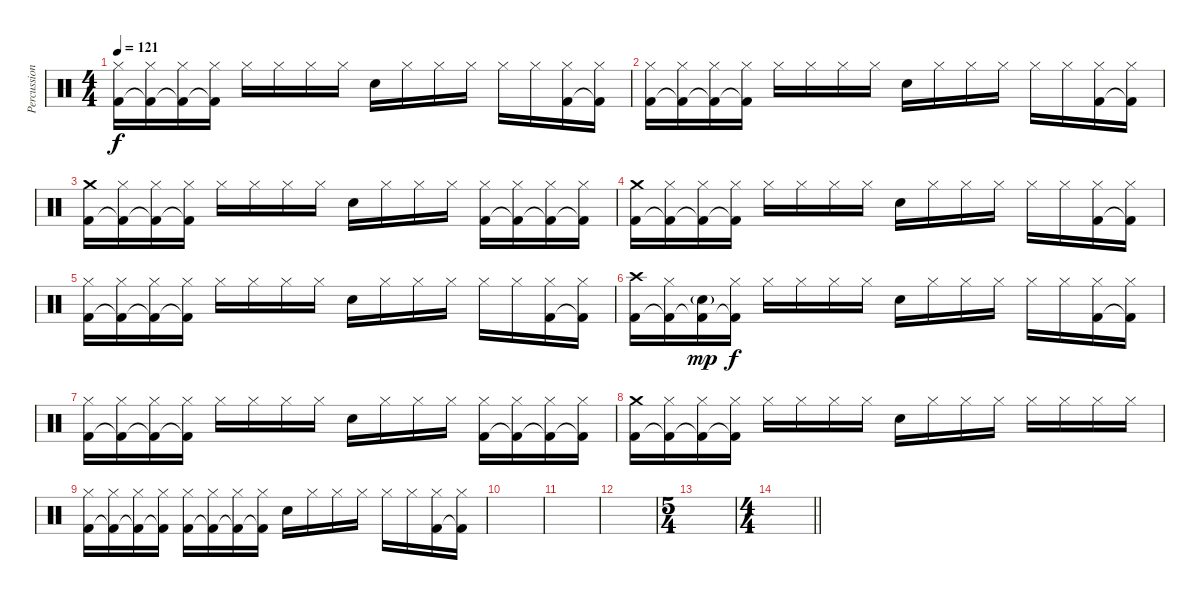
\track ("Percussioni" "Percussion") {instrument percussion}
\staff {score}
\articulation defaults
\ts (4 4)
\tempo 121
\clef neutral
\ks c
("Hi-Hat (closed)" "Kick (hit) 2").16{dy f} ("Hi-Hat (closed)" "Kick (hit) 2"{t}).16 ("Hi-Hat (closed)" "Kick (hit) 2"{t}).16 ("Hi-Hat (closed)" "Kick (hit) 2"{t}).16 "Hi-Hat (closed)".16 "Hi-Hat (closed)".16 "Hi-Hat (closed)".16 "Hi-Hat (closed)".16 "Snare (hit) 2".16 "Hi-Hat (closed)".16 "Hi-Hat (closed)".16 "Hi-Hat (closed)".16 "Hi-Hat (closed)".16 "Hi-Hat (closed)".16 ("Hi-Hat (closed)" "Kick (hit) 2").16 ("Hi-Hat (closed)" "Kick (hit) 2"{t}).16 |
("Hi-Hat (closed)" "Kick (hit) 2").16 ("Hi-Hat (closed)" "Kick (hit) 2"{t}).16 ("Hi-Hat (closed)" "Kick (hit) 2"{t}).16 ("Hi-Hat (closed)" "Kick (hit) 2"{t}).16 "Hi-Hat (closed)".16 "Hi-Hat (closed)".16 "Hi-Hat (closed)".16 "Hi-Hat (closed)".16 "Snare (hit) 2".16 "Hi-Hat (closed)".16 "Hi-Hat (closed)".16 "Hi-Hat (closed)".16 "Hi-Hat (closed)".16 "Hi-Hat (closed)".16 ("Hi-Hat (closed)" "Kick (hit) 2").16 ("Hi-Hat (closed)" "Kick (hit) 2"{t}).16 |
("Crash medium (hit)" "Kick (hit) 2").16 ("Hi-Hat (closed)" "Kick (hit) 2"{t}).16 ("Hi-Hat (closed)" "Kick (hit) 2"{t}).16 ("Hi-Hat (closed)" "Kick (hit) 2"{t}).16 "Hi-Hat (closed)".16 "Hi-Hat (closed)".16 "Hi-Hat (closed)".16 "Hi-Hat (closed)".16 "Snare (hit) 2".16 "Hi-Hat (closed)".16 "Hi-Hat (closed)".16 "Hi-Hat (closed)".16 ("Hi-Hat (closed)" "Kick (hit) 2").16 ("Hi-Hat (closed)" "Kick (hit) 2"{t}).16 ("Hi-Hat (closed)" "Kick (hit) 2"{t}).16 ("Hi-Hat (closed)" "Kick (hit) 2"{t}).16 |
("Crash medium (hit)" "Kick (hit) 2").16 ("Hi-Hat (closed)" "Kick (hit) 2"{t}).16 ("Hi-Hat (closed)" "Kick (hit) 2"{t}).16 ("Hi-Hat (closed)" "Kick (hit) 2"{t}).16 "Hi-Hat (closed)".16 "Hi-Hat (closed)".16 "Hi-Hat (closed)".16 "Hi-Hat (closed)".16 "Snare (hit) 2".16 "Hi-Hat (closed)".16 "Hi-Hat (closed)".16 "Hi-Hat (closed)".16 "Hi-Hat (closed)".16 "Hi-Hat (closed)".16 ("Hi-Hat (closed)" "Kick (hit) 2").16 ("Hi-Hat (closed)" "Kick (hit) 2"{t}).16 |
("Hi-Hat (closed)" "Kick (hit) 2").16 ("Hi-Hat (closed)" "Kick (hit) 2"{t}).16 ("Hi-Hat (closed)" "Kick (hit) 2"{t}).16 ("Hi-Hat (closed)" "Kick (hit) 2"{t}).16 "Hi-Hat (closed)".16 "Hi-Hat (closed)".16 "Hi-Hat (closed)".16 "Hi-Hat (closed)".16 "Snare (hit) 2".16 "Hi-Hat (closed)".16 "Hi-Hat (closed)".16 "Hi-Hat (closed)".16 "Hi-Hat (closed)".16 "Hi-Hat (closed)".16 ("Hi-Hat (closed)" "Kick (hit) 2").16 ("Hi-Hat (closed)" "Kick (hit) 2"{t}).16 |
("Crash high (hit)" "Kick (hit) 2").16 ("Hi-Hat (closed)" "Kick (hit) 2"{t}).16 ("Snare (hit) 2"{g} "Kick (hit) 2"{t}).16{dy mp} ("Hi-Hat (closed)" "Kick (hit) 2"{t}).16{dy f} "Hi-Hat (closed)".16 "Hi-Hat (closed)".16 "Hi-Hat (closed)".16 "Hi-Hat (closed)".16 "Snare (hit) 2".16 "Hi-Hat (closed)".16 "Hi-Hat (closed)".16 "Hi-Hat (closed)".16 "Hi-Hat (closed)".16 "Hi-Hat (closed)".16 ("Hi-Hat (closed)" "Kick (hit) 2").16 ("Hi-Hat (closed)" "Kick (hit) 2"{t}).16 |
("Hi-Hat (closed)" "Kick (hit) 2").16 ("Hi-Hat (closed)" "Kick (hit) 2"{t}).16 ("Hi-Hat (closed)" "Kick (hit) 2"{t}).16 ("Hi-Hat (closed)" "Kick (hit) 2"{t}).16 "Hi-Hat (closed)".16 "Hi-Hat (closed)".16 "Hi-Hat (closed)".16 "Hi-Hat (closed)".16 "Snare (hit) 2".16 "Hi-Hat (closed)".16 "Hi-Hat (closed)".16 "Hi-Hat (closed)".16 ("Hi-Hat (closed)" "Kick (hit) 2").16 ("Hi-Hat (closed)" "Kick (hit) 2"{t}).16 ("Hi-Hat (closed)" "Kick (hit) 2"{t}).16 ("Hi-Hat (closed)" "Kick (hit) 2"{t}).16 |
("Crash medium (hit)" "Kick (hit) 2").16 ("Hi-Hat (closed)" "Kick (hit) 2"{t}).16 ("Hi-Hat (closed)" "Kick (hit) 2"{t}).16 ("Hi-Hat (closed)" "Kick (hit) 2"{t}).16 "Hi-Hat (closed)".16 "Hi-Hat (closed)".16 "Hi-Hat (closed)".16 "Hi-Hat (closed)".16 "Snare (hit) 2".16 "Hi-Hat (closed)".16 "Hi-Hat (closed)".16 "Hi-Hat (closed)".16 "Hi-Hat (closed)".16 "Hi-Hat (closed)".16 "Hi-Hat (closed)".16 "Hi-Hat (closed)".16 |
("Hi-Hat (closed)" "Kick (hit) 2").16 ("Hi-Hat (closed)" "Kick (hit) 2"{t}).16 ("Hi-Hat (closed)" "Kick (hit) 2"{t}).16 ("Hi-Hat (closed)" "Kick (hit) 2"{t}).16 ("Hi-Hat (closed)" "Kick (hit) 2").16 ("Hi-Hat (closed)" "Kick (hit) 2"{t}).16 ("Hi-Hat (closed)" "Kick (hit) 2"{t}).16 ("Hi-Hat (closed)" "Kick (hit) 2"{t}).16 "Snare (hit) 2".16 "Hi-Hat (closed)".16 "Hi-Hat (closed)".16 "Hi-Hat (closed)".16 "Hi-Hat (closed)".16 "Hi-Hat (closed)".16 ("Hi-Hat (closed)" "Kick (hit) 2").16 ("Hi-Hat (closed)" "Kick (hit) 2"{t}).16 |
|
|
|
\ts (5 4)
|
\ts (4 4)
\barLineRight lightlight
